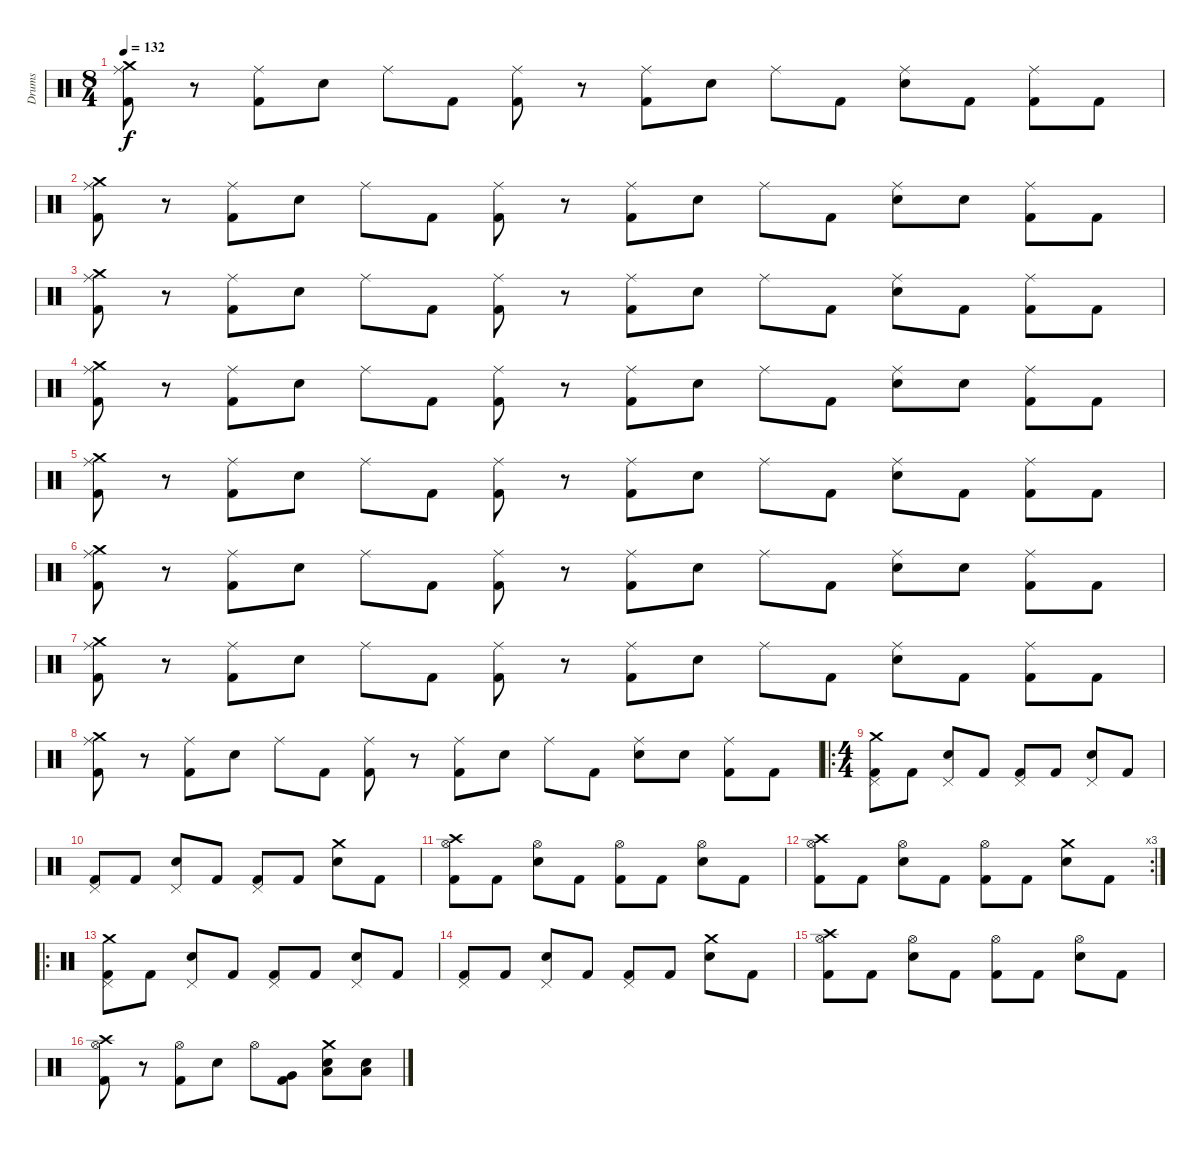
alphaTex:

\track ("Drums" "Drums") {instrument percussion}
\staff {score}
\articulation defaults
\ts (8 4)
\tempo 132
\clef neutral
\ks c
("Crash medium (hit)" "Ride (middle)" "Kick (hit) 2").8{dy f} r.8 ("Ride (middle)" "Kick (hit) 2").8 "Electric Snare (hit)".8 "Ride (middle)".8 "Kick (hit) 2".8 ("Ride (middle)" "Kick (hit) 2").8 r.8 ("Ride (middle)" "Kick (hit) 2").8 "Electric Snare (hit)".8 "Ride (middle)".8 "Kick (hit) 2".8 ("Ride (middle)" "Electric Snare (hit)").8 "Kick (hit) 2".8 ("Ride (middle)" "Kick (hit) 2").8 "Kick (hit) 2".8 |
("Crash medium (hit)" "Ride (middle)" "Kick (hit) 2").8 r.8 ("Ride (middle)" "Kick (hit) 2").8 "Electric Snare (hit)".8 "Ride (middle)".8 "Kick (hit) 2".8 ("Ride (middle)" "Kick (hit) 2").8 r.8 ("Ride (middle)" "Kick (hit) 2").8 "Electric Snare (hit)".8 "Ride (middle)".8 "Kick (hit) 2".8 ("Ride (middle)" "Electric Snare (hit)").8 "Electric Snare (hit)".8 ("Ride (middle)" "Kick (hit) 2").8 "Kick (hit) 2".8 |
("Crash medium (hit)" "Ride (middle)" "Kick (hit) 2").8 r.8 ("Ride (middle)" "Kick (hit) 2").8 "Electric Snare (hit)".8 "Ride (middle)".8 "Kick (hit) 2".8 ("Ride (middle)" "Kick (hit) 2").8 r.8 ("Ride (middle)" "Kick (hit) 2").8 "Electric Snare (hit)".8 "Ride (middle)".8 "Kick (hit) 2".8 ("Ride (middle)" "Electric Snare (hit)").8 "Kick (hit) 2".8 ("Ride (middle)" "Kick (hit) 2").8 "Kick (hit) 2".8 |
("Crash medium (hit)" "Ride (middle)" "Kick (hit) 2").8 r.8 ("Ride (middle)" "Kick (hit) 2").8 "Electric Snare (hit)".8 "Ride (middle)".8 "Kick (hit) 2".8 ("Ride (middle)" "Kick (hit) 2").8 r.8 ("Ride (middle)" "Kick (hit) 2").8 "Electric Snare (hit)".8 "Ride (middle)".8 "Kick (hit) 2".8 ("Ride (middle)" "Electric Snare (hit)").8 "Electric Snare (hit)".8 ("Ride (middle)" "Kick (hit) 2").8 "Kick (hit) 2".8 |
("Crash medium (hit)" "Ride (middle)" "Kick (hit) 2").8 r.8 ("Ride (middle)" "Kick (hit) 2").8 "Electric Snare (hit)".8 "Ride (middle)".8 "Kick (hit) 2".8 ("Ride (middle)" "Kick (hit) 2").8 r.8 ("Ride (middle)" "Kick (hit) 2").8 "Electric Snare (hit)".8 "Ride (middle)".8 "Kick (hit) 2".8 ("Ride (middle)" "Electric Snare (hit)").8 "Kick (hit) 2".8 ("Ride (middle)" "Kick (hit) 2").8 "Kick (hit) 2".8 |
("Crash medium (hit)" "Ride (middle)" "Kick (hit) 2").8 r.8 ("Ride (middle)" "Kick (hit) 2").8 "Electric Snare (hit)".8 "Ride (middle)".8 "Kick (hit) 2".8 ("Ride (middle)" "Kick (hit) 2").8 r.8 ("Ride (middle)" "Kick (hit) 2").8 "Electric Snare (hit)".8 "Ride (middle)".8 "Kick (hit) 2".8 ("Ride (middle)" "Electric Snare (hit)").8 "Electric Snare (hit)".8 ("Ride (middle)" "Kick (hit) 2").8 "Kick (hit) 2".8 |
("Crash medium (hit)" "Ride (middle)" "Kick (hit) 2").8 r.8 ("Ride (middle)" "Kick (hit) 2").8 "Electric Snare (hit)".8 "Ride (middle)".8 "Kick (hit) 2".8 ("Ride (middle)" "Kick (hit) 2").8 r.8 ("Ride (middle)" "Kick (hit) 2").8 "Electric Snare (hit)".8 "Ride (middle)".8 "Kick (hit) 2".8 ("Ride (middle)" "Electric Snare (hit)").8 "Kick (hit) 2".8 ("Ride (middle)" "Kick (hit) 2").8 "Kick (hit) 2".8 |
("Crash medium (hit)" "Ride (middle)" "Kick (hit) 2").8 r.8 ("Ride (middle)" "Kick (hit) 2").8 "Electric Snare (hit)".8 "Ride (middle)".8 "Kick (hit) 2".8 ("Ride (middle)" "Kick (hit) 2").8 r.8 ("Ride (middle)" "Kick (hit) 2").8 "Electric Snare (hit)".8 "Ride (middle)".8 "Kick (hit) 2".8 ("Ride (middle)" "Electric Snare (hit)").8 "Electric Snare (hit)".8 ("Ride (middle)" "Kick (hit) 2").8 "Kick (hit) 2".8 |
\ro
\ts (4 4)
("Crash medium (hit)" "Pedal Hi-Hat (hit)" "Kick (hit) 2").8 "Kick (hit) 2".8 ("Pedal Hi-Hat (hit)" "Electric Snare (hit)").8 "Kick (hit) 2".8 ("Pedal Hi-Hat (hit)" "Kick (hit) 2").8 "Kick (hit) 2".8 ("Pedal Hi-Hat (hit)" "Electric Snare (hit)").8 "Kick (hit) 2".8 |
("Pedal Hi-Hat (hit)" "Kick (hit) 2").8 "Kick (hit) 2".8 ("Pedal Hi-Hat (hit)" "Electric Snare (hit)").8 "Kick (hit) 2".8 ("Pedal Hi-Hat (hit)" "Kick (hit) 2").8 "Kick (hit) 2".8 ("Crash medium (hit)" "Electric Snare (hit)").8 "Kick (hit) 2".8 |
("Crash high (hit)" "Hi-Hat (open)" "Kick (hit) 2").8 "Kick (hit) 2".8 ("Hi-Hat (open)" "Electric Snare (hit)").8 "Kick (hit) 2".8 ("Hi-Hat (open)" "Kick (hit) 2").8 "Kick (hit) 2".8 ("Hi-Hat (open)" "Electric Snare (hit)").8 "Kick (hit) 2".8 |
\rc 3
("Crash high (hit)" "Hi-Hat (open)" "Kick (hit) 2").8 "Kick (hit) 2".8 ("Hi-Hat (open)" "Electric Snare (hit)").8 "Kick (hit) 2".8 ("Hi-Hat (open)" "Kick (hit) 2").8 "Kick (hit) 2".8 ("Crash medium (hit)" "Electric Snare (hit)").8 "Kick (hit) 2".8 |
\ro
("Crash medium (hit)" "Pedal Hi-Hat (hit)" "Kick (hit) 2").8 "Kick (hit) 2".8 ("Pedal Hi-Hat (hit)" "Electric Snare (hit)").8 "Kick (hit) 2".8 ("Pedal Hi-Hat (hit)" "Kick (hit) 2").8 "Kick (hit) 2".8 ("Pedal Hi-Hat (hit)" "Electric Snare (hit)").8 "Kick (hit) 2".8 |
("Pedal Hi-Hat (hit)" "Kick (hit) 2").8 "Kick (hit) 2".8 ("Pedal Hi-Hat (hit)" "Electric Snare (hit)").8 "Kick (hit) 2".8 ("Pedal Hi-Hat (hit)" "Kick (hit) 2").8 "Kick (hit) 2".8 ("Crash medium (hit)" "Electric Snare (hit)").8 "Kick (hit) 2".8 |
("Crash high (hit)" "Hi-Hat (open)" "Kick (hit) 2").8 "Kick (hit) 2".8 ("Hi-Hat (open)" "Electric Snare (hit)").8 "Kick (hit) 2".8 ("Hi-Hat (open)" "Kick (hit) 2").8 "Kick (hit) 2".8 ("Hi-Hat (open)" "Electric Snare (hit)").8 "Kick (hit) 2".8 |
("Crash high (hit)" "Hi-Hat (open)" "Kick (hit) 2").8 r.8 ("Hi-Hat (open)" "Kick (hit) 2").8 "Electric Snare (hit)".8 "Hi-Hat (open)".8 ("Very Low Tom (hit)" "Kick (hit) 2").8 ("Low Tom (hit)" "Crash medium (hit)" "Electric Snare (hit)").8 ("Low Floor Tom (hit)" "Electric Snare (hit)").8
